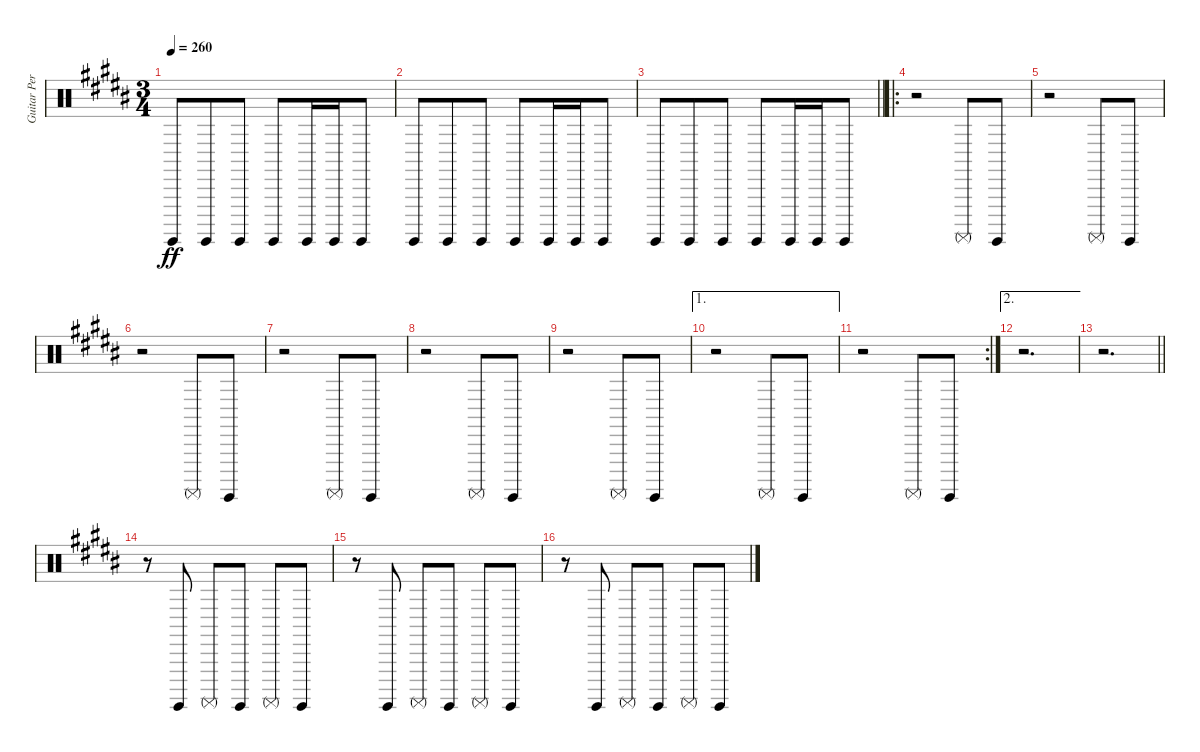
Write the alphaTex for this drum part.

\track ("Guitar Percussion Noises" "Guitar Per") {instrument percussion}
\staff {score}
\articulation defaults
\ts (3 4)
\tempo 260
\clef neutral
\ks b "Surdo (hit)".8{dy ff} "Surdo (hit)".8{beam merge} "Surdo (hit)".8{beam split} "Surdo (hit)".8{beam merge} "Surdo (hit)".16 "Surdo (hit)".16 "Surdo (hit)".8
|
"Surdo (hit)".8 "Surdo (hit)".8{beam merge} "Surdo (hit)".8{beam split} "Surdo (hit)".8{beam merge} "Surdo (hit)".16 "Surdo (hit)".16 "Surdo (hit)".8 |
\barLineRight lightlight "Surdo (hit)".8 "Surdo (hit)".8{beam merge} "Surdo (hit)".8{beam split} "Surdo (hit)".8{beam merge} "Surdo (hit)".16 "Surdo (hit)".16 "Surdo (hit)".8
|
\ro
r.2 "Surdo (mute)".8 "Surdo (hit)".8 |
r.2 "Surdo (mute)".8 "Surdo (hit)".8 |
r.2 "Surdo (mute)".8 "Surdo (hit)".8 |
r.2 "Surdo (mute)".8 "Surdo (hit)".8 |
r.2 "Surdo (mute)".8 "Surdo (hit)".8 |
r.2 "Surdo (mute)".8 "Surdo (hit)".8 |
\ae 1
r.2 "Surdo (mute)".8 "Surdo (hit)".8 |
\rc 2
r.2 "Surdo (mute)".8 "Surdo (hit)".8 |
\ae 2
r.2{d} |
\barLineRight lightlight
r.2{d} |
r.8 "Surdo (hit)".8 "Surdo (mute)".8 "Surdo (hit)".8 "Surdo (mute)".8 "Surdo (hit)".8 |
r.8 "Surdo (hit)".8 "Surdo (mute)".8 "Surdo (hit)".8 "Surdo (mute)".8 "Surdo (hit)".8 |
r.8 "Surdo (hit)".8 "Surdo (mute)".8 "Surdo (hit)".8 "Surdo (mute)".8 "Surdo (hit)".8
